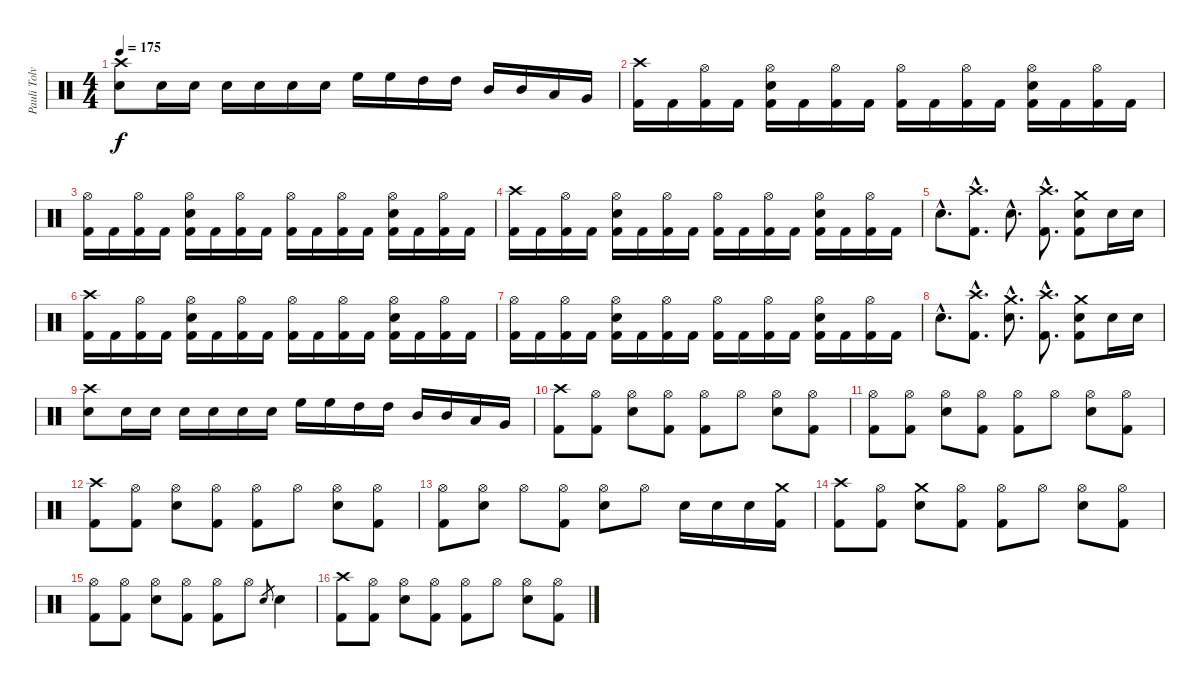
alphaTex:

\track ("Pauli Tolvanen-Drums" "Pauli Tolv") {instrument percussion}
\staff {score}
\articulation defaults
\ts (4 4)
\tempo 175
\clef neutral
\ks c
("Crash high (hit)" "Snare (hit) 2").8{dy f} "Snare (hit) 2".16 "Snare (hit) 2".16 "Snare (hit) 2".16 "Snare (hit) 2".16 "Snare (hit) 2".16 "Snare (hit) 2".16 "High Floor Tom (hit)".16 "High Floor Tom (hit)".16 "High Tom (hit)".16 "High Tom (hit)".16 "Mid Tom (hit)".16 "Mid Tom (hit)".16 "Low Tom (hit)".16 "Very Low Tom (hit)".16 |
("Crash high (hit)" "Kick (hit) 2").16 "Kick (hit) 2".16 ("Hi-Hat (open)" "Kick (hit) 2").16 "Kick (hit) 2".16 ("Hi-Hat (open)" "Snare (hit) 2" "Kick (hit) 2").16 "Kick (hit) 2".16 ("Hi-Hat (open)" "Kick (hit) 2").16 "Kick (hit) 2".16 ("Hi-Hat (open)" "Kick (hit) 2").16 "Kick (hit) 2".16 ("Hi-Hat (open)" "Kick (hit) 2").16 "Kick (hit) 2".16 ("Hi-Hat (open)" "Snare (hit) 2" "Kick (hit) 2").16 "Kick (hit) 2".16 ("Hi-Hat (open)" "Kick (hit) 2").16 "Kick (hit) 2".16 |
("Hi-Hat (open)" "Kick (hit) 2").16 "Kick (hit) 2".16 ("Hi-Hat (open)" "Kick (hit) 2").16 "Kick (hit) 2".16 ("Hi-Hat (open)" "Snare (hit) 2" "Kick (hit) 2").16 "Kick (hit) 2".16 ("Hi-Hat (open)" "Kick (hit) 2").16 "Kick (hit) 2".16 ("Hi-Hat (open)" "Kick (hit) 2").16 "Kick (hit) 2".16 ("Hi-Hat (open)" "Kick (hit) 2").16 "Kick (hit) 2".16 ("Hi-Hat (open)" "Snare (hit) 2" "Kick (hit) 2").16 "Kick (hit) 2".16 ("Hi-Hat (open)" "Kick (hit) 2").16 "Kick (hit) 2".16 |
("Crash high (hit)" "Kick (hit) 2").16 "Kick (hit) 2".16 ("Hi-Hat (open)" "Kick (hit) 2").16 "Kick (hit) 2".16 ("Hi-Hat (open)" "Snare (hit) 2" "Kick (hit) 2").16 "Kick (hit) 2".16 ("Hi-Hat (open)" "Kick (hit) 2").16 "Kick (hit) 2".16 ("Hi-Hat (open)" "Kick (hit) 2").16 "Kick (hit) 2".16 ("Hi-Hat (open)" "Kick (hit) 2").16 "Kick (hit) 2".16 ("Hi-Hat (open)" "Snare (hit) 2" "Kick (hit) 2").16 "Kick (hit) 2".16 ("Hi-Hat (open)" "Kick (hit) 2").16 "Kick (hit) 2".16 |
"Snare (hit) 2"{hac}.8{d} ("Crash high (hit)"{hac} "Kick (hit) 2"{hac}).8{d} "Snare (hit) 2"{hac}.8{d} ("Crash high (hit)"{hac} "Kick (hit) 2"{hac}).8{d} ("Crash medium (hit)" "Snare (hit) 2" "Kick (hit) 2").8 "Snare (hit) 2".16 "Snare (hit) 2".16 |
("Crash high (hit)" "Kick (hit) 2").16 "Kick (hit) 2".16 ("Hi-Hat (open)" "Kick (hit) 2").16 "Kick (hit) 2".16 ("Hi-Hat (open)" "Snare (hit) 2" "Kick (hit) 2").16 "Kick (hit) 2".16 ("Hi-Hat (open)" "Kick (hit) 2").16 "Kick (hit) 2".16 ("Hi-Hat (open)" "Kick (hit) 2").16 "Kick (hit) 2".16 ("Hi-Hat (open)" "Kick (hit) 2").16 "Kick (hit) 2".16 ("Hi-Hat (open)" "Snare (hit) 2" "Kick (hit) 2").16 "Kick (hit) 2".16 ("Hi-Hat (open)" "Kick (hit) 2").16 "Kick (hit) 2".16 |
("Hi-Hat (open)" "Kick (hit) 2").16 "Kick (hit) 2".16 ("Hi-Hat (open)" "Kick (hit) 2").16 "Kick (hit) 2".16 ("Hi-Hat (open)" "Snare (hit) 2" "Kick (hit) 2").16 "Kick (hit) 2".16 ("Hi-Hat (open)" "Kick (hit) 2").16 "Kick (hit) 2".16 ("Hi-Hat (open)" "Kick (hit) 2").16 "Kick (hit) 2".16 ("Hi-Hat (open)" "Kick (hit) 2").16 "Kick (hit) 2".16 ("Hi-Hat (open)" "Snare (hit) 2" "Kick (hit) 2").16 "Kick (hit) 2".16 ("Hi-Hat (open)" "Kick (hit) 2").16 "Kick (hit) 2".16 |
"Snare (hit) 2"{hac}.8{d} ("Crash high (hit)"{hac} "Kick (hit) 2"{hac}).8{d} ("Crash medium (hit)"{hac} "Snare (hit) 2"{hac}).8{d} ("Crash high (hit)"{hac} "Kick (hit) 2"{hac}).8{d} ("Crash medium (hit)" "Snare (hit) 2" "Kick (hit) 2").8 "Snare (hit) 2".16 "Snare (hit) 2".16 |
("Crash high (hit)" "Snare (hit) 2").8 "Snare (hit) 2".16 "Snare (hit) 2".16 "Snare (hit) 2".16 "Snare (hit) 2".16 "Snare (hit) 2".16 "Snare (hit) 2".16 "High Floor Tom (hit)".16 "High Floor Tom (hit)".16 "High Tom (hit)".16 "High Tom (hit)".16 "Mid Tom (hit)".16 "Mid Tom (hit)".16 "Low Tom (hit)".16 "Very Low Tom (hit)".16 |
("Crash high (hit)" "Kick (hit) 2").8 ("Hi-Hat (open)" "Kick (hit) 2").8 ("Hi-Hat (open)" "Snare (hit) 2").8 ("Hi-Hat (open)" "Kick (hit) 2").8 ("Hi-Hat (open)" "Kick (hit) 2").8 "Hi-Hat (open)".8 ("Hi-Hat (open)" "Snare (hit) 2").8 ("Hi-Hat (open)" "Kick (hit) 2").8 |
("Hi-Hat (open)" "Kick (hit) 2").8 ("Hi-Hat (open)" "Kick (hit) 2").8 ("Hi-Hat (open)" "Snare (hit) 2").8 ("Hi-Hat (open)" "Kick (hit) 2").8 ("Hi-Hat (open)" "Kick (hit) 2").8 "Hi-Hat (open)".8 ("Hi-Hat (open)" "Snare (hit) 2").8 ("Hi-Hat (open)" "Kick (hit) 2").8 |
("Crash high (hit)" "Kick (hit) 2").8 ("Hi-Hat (open)" "Kick (hit) 2").8 ("Hi-Hat (open)" "Snare (hit) 2").8 ("Hi-Hat (open)" "Kick (hit) 2").8 ("Hi-Hat (open)" "Kick (hit) 2").8 "Hi-Hat (open)".8 ("Hi-Hat (open)" "Snare (hit) 2").8 ("Hi-Hat (open)" "Kick (hit) 2").8 |
("Hi-Hat (open)" "Kick (hit) 2").8 ("Hi-Hat (open)" "Snare (hit) 2").8 "Hi-Hat (open)".8 ("Hi-Hat (open)" "Kick (hit) 2").8 ("Hi-Hat (open)" "Snare (hit) 2").8 "Hi-Hat (open)".8 "Snare (hit) 2".16 "Snare (hit) 2".16 "Snare (hit) 2".16 ("Crash medium (hit)" "Kick (hit) 2").16 |
("Crash high (hit)" "Kick (hit) 2").8 ("Hi-Hat (open)" "Kick (hit) 2").8 ("Crash medium (hit)" "Snare (hit) 2").8 ("Hi-Hat (open)" "Kick (hit) 2").8 ("Hi-Hat (open)" "Kick (hit) 2").8 "Hi-Hat (open)".8 ("Hi-Hat (open)" "Snare (hit) 2").8 ("Hi-Hat (open)" "Kick (hit) 2").8 |
("Hi-Hat (open)" "Kick (hit) 2").8 ("Hi-Hat (open)" "Kick (hit) 2").8 ("Hi-Hat (open)" "Snare (hit) 2").8 ("Hi-Hat (open)" "Kick (hit) 2").8 ("Hi-Hat (open)" "Kick (hit) 2").8 "Hi-Hat (open)".8 "Snare (hit) 2".8{gr} "Snare (hit) 2".4 |
("Crash high (hit)" "Kick (hit) 2").8 ("Hi-Hat (open)" "Kick (hit) 2").8 ("Hi-Hat (open)" "Snare (hit) 2").8 ("Hi-Hat (open)" "Kick (hit) 2").8 ("Hi-Hat (open)" "Kick (hit) 2").8 "Hi-Hat (open)".8 ("Hi-Hat (open)" "Snare (hit) 2").8 ("Hi-Hat (open)" "Kick (hit) 2").8
